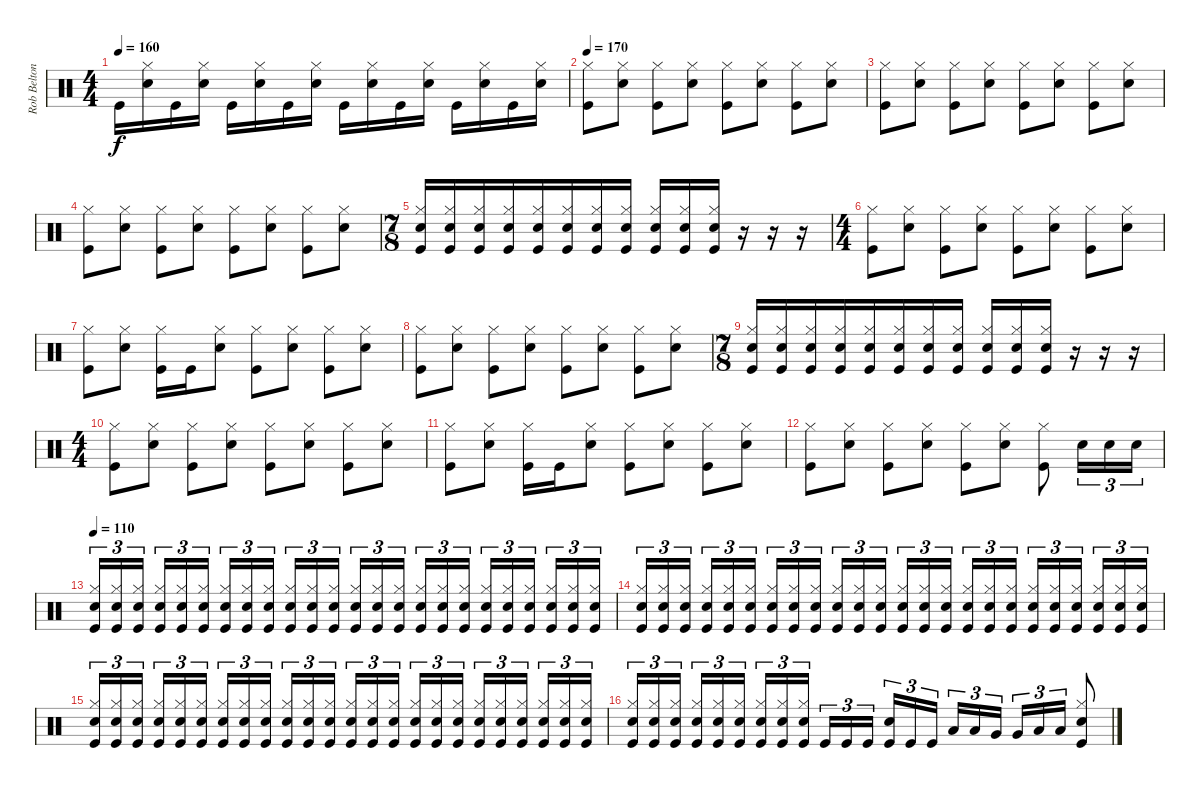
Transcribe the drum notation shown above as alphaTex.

\track ("Rob Belton" "Rob Belton") {instrument percussion}
\staff {score}
\articulation defaults
\ts (4 4)
\tempo 160
\clef neutral
\ks c "Kick (hit)".16{dy f}
("Hi-Hat (closed)" "Snare (hit) 2").16 "Kick (hit)".16 ("Hi-Hat (closed)" "Snare (hit) 2").16 "Kick (hit)".16 ("Hi-Hat (closed)" "Snare (hit) 2").16 "Kick (hit)".16 ("Hi-Hat (closed)" "Snare (hit) 2").16 "Kick (hit)".16 ("Hi-Hat (closed)" "Snare (hit) 2").16 "Kick (hit)".16 ("Hi-Hat (closed)" "Snare (hit) 2").16 "Kick (hit)".16 ("Hi-Hat (closed)" "Snare (hit) 2").16 "Kick (hit)".16 ("Hi-Hat (closed)" "Snare (hit) 2").16 |
\tempo 170
("Hi-Hat (closed)" "Kick (hit)").8 ("Hi-Hat (closed)" "Snare (hit) 2").8 ("Hi-Hat (closed)" "Kick (hit)").8 ("Hi-Hat (closed)" "Snare (hit) 2").8 ("Hi-Hat (closed)" "Kick (hit)").8 ("Hi-Hat (closed)" "Snare (hit) 2").8 ("Hi-Hat (closed)" "Kick (hit)").8 ("Hi-Hat (closed)" "Snare (hit) 2").8 |
("Hi-Hat (closed)" "Kick (hit)").8 ("Hi-Hat (closed)" "Snare (hit) 2").8 ("Hi-Hat (closed)" "Kick (hit)").8 ("Hi-Hat (closed)" "Snare (hit) 2").8 ("Hi-Hat (closed)" "Kick (hit)").8 ("Hi-Hat (closed)" "Snare (hit) 2").8 ("Hi-Hat (closed)" "Kick (hit)").8 ("Hi-Hat (closed)" "Snare (hit) 2").8 |
("Hi-Hat (closed)" "Kick (hit)").8 ("Hi-Hat (closed)" "Snare (hit) 2").8 ("Hi-Hat (closed)" "Kick (hit)").8 ("Hi-Hat (closed)" "Snare (hit) 2").8 ("Hi-Hat (closed)" "Kick (hit)").8 ("Hi-Hat (closed)" "Snare (hit) 2").8 ("Hi-Hat (closed)" "Kick (hit)").8 ("Hi-Hat (closed)" "Snare (hit) 2").8 |
\ts (7 8)
("Hi-Hat (closed)" "Snare (hit) 2" "Kick (hit)").16 ("Hi-Hat (closed)" "Snare (hit) 2" "Kick (hit)").16 ("Hi-Hat (closed)" "Snare (hit) 2" "Kick (hit)").16 ("Hi-Hat (closed)" "Snare (hit) 2" "Kick (hit)").16 ("Hi-Hat (closed)" "Snare (hit) 2" "Kick (hit)").16 ("Hi-Hat (closed)" "Snare (hit) 2" "Kick (hit)").16 ("Hi-Hat (closed)" "Snare (hit) 2" "Kick (hit)").16 ("Hi-Hat (closed)" "Snare (hit) 2" "Kick (hit)").16 ("Hi-Hat (closed)" "Snare (hit) 2" "Kick (hit)").16 ("Hi-Hat (closed)" "Snare (hit) 2" "Kick (hit)").16 ("Hi-Hat (closed)" "Snare (hit) 2" "Kick (hit)").16 r.16 r.16 r.16 |
\ts (4 4)
("Hi-Hat (closed)" "Kick (hit)").8 ("Hi-Hat (closed)" "Snare (hit) 2").8 ("Hi-Hat (closed)" "Kick (hit)").8 ("Hi-Hat (closed)" "Snare (hit) 2").8 ("Hi-Hat (closed)" "Kick (hit)").8 ("Hi-Hat (closed)" "Snare (hit) 2").8 ("Hi-Hat (closed)" "Kick (hit)").8 ("Hi-Hat (closed)" "Snare (hit) 2").8 |
("Hi-Hat (closed)" "Kick (hit)").8 ("Hi-Hat (closed)" "Snare (hit) 2").8 ("Hi-Hat (closed)" "Kick (hit)").16 "Kick (hit)".16 ("Hi-Hat (closed)" "Snare (hit) 2").8 ("Hi-Hat (closed)" "Kick (hit)").8 ("Hi-Hat (closed)" "Snare (hit) 2").8 ("Hi-Hat (closed)" "Kick (hit)").8 ("Hi-Hat (closed)" "Snare (hit) 2").8 |
("Hi-Hat (closed)" "Kick (hit)").8 ("Hi-Hat (closed)" "Snare (hit) 2").8 ("Hi-Hat (closed)" "Kick (hit)").8 ("Hi-Hat (closed)" "Snare (hit) 2").8 ("Hi-Hat (closed)" "Kick (hit)").8 ("Hi-Hat (closed)" "Snare (hit) 2").8 ("Hi-Hat (closed)" "Kick (hit)").8 ("Hi-Hat (closed)" "Snare (hit) 2").8 |
\ts (7 8)
("Hi-Hat (closed)" "Snare (hit) 2" "Kick (hit)").16 ("Hi-Hat (closed)" "Snare (hit) 2" "Kick (hit)").16 ("Hi-Hat (closed)" "Snare (hit) 2" "Kick (hit)").16 ("Hi-Hat (closed)" "Snare (hit) 2" "Kick (hit)").16 ("Hi-Hat (closed)" "Snare (hit) 2" "Kick (hit)").16 ("Hi-Hat (closed)" "Snare (hit) 2" "Kick (hit)").16 ("Hi-Hat (closed)" "Snare (hit) 2" "Kick (hit)").16 ("Hi-Hat (closed)" "Snare (hit) 2" "Kick (hit)").16 ("Hi-Hat (closed)" "Snare (hit) 2" "Kick (hit)").16 ("Hi-Hat (closed)" "Snare (hit) 2" "Kick (hit)").16 ("Hi-Hat (closed)" "Snare (hit) 2" "Kick (hit)").16 r.16 r.16 r.16 |
\ts (4 4)
("Hi-Hat (closed)" "Kick (hit)").8 ("Hi-Hat (closed)" "Snare (hit) 2").8 ("Hi-Hat (closed)" "Kick (hit)").8 ("Hi-Hat (closed)" "Snare (hit) 2").8 ("Hi-Hat (closed)" "Kick (hit)").8 ("Hi-Hat (closed)" "Snare (hit) 2").8 ("Hi-Hat (closed)" "Kick (hit)").8 ("Hi-Hat (closed)" "Snare (hit) 2").8 |
("Hi-Hat (closed)" "Kick (hit)").8 ("Hi-Hat (closed)" "Snare (hit) 2").8 ("Hi-Hat (closed)" "Kick (hit)").16 "Kick (hit)".16 ("Hi-Hat (closed)" "Snare (hit) 2").8 ("Hi-Hat (closed)" "Kick (hit)").8 ("Hi-Hat (closed)" "Snare (hit) 2").8 ("Hi-Hat (closed)" "Kick (hit)").8 ("Hi-Hat (closed)" "Snare (hit) 2").8 |
("Hi-Hat (closed)" "Kick (hit)").8 ("Hi-Hat (closed)" "Snare (hit) 2").8 ("Hi-Hat (closed)" "Kick (hit)").8 ("Hi-Hat (closed)" "Snare (hit) 2").8 ("Hi-Hat (closed)" "Kick (hit)").8 ("Hi-Hat (closed)" "Snare (hit) 2").8 ("Hi-Hat (closed)" "Kick (hit)").8 "Snare (hit) 2".16{tu (3 2)} "Snare (hit) 2".16{tu (3 2)} "Snare (hit) 2".16{tu (3 2)} |
\tempo 110
("Hi-Hat (closed)" "Snare (hit) 2" "Kick (hit)").16{tu (3 2)} ("Hi-Hat (closed)" "Snare (hit) 2" "Kick (hit)").16{tu (3 2)} ("Hi-Hat (closed)" "Snare (hit) 2" "Kick (hit)").16{tu (3 2) beam splitsecondary} ("Hi-Hat (closed)" "Snare (hit) 2" "Kick (hit)").16{tu (3 2)} ("Hi-Hat (closed)" "Snare (hit) 2" "Kick (hit)").16{tu (3 2)} ("Hi-Hat (closed)" "Snare (hit) 2" "Kick (hit)").16{tu (3 2)} ("Hi-Hat (closed)" "Snare (hit) 2" "Kick (hit)").16{tu (3 2)} ("Hi-Hat (closed)" "Snare (hit) 2" "Kick (hit)").16{tu (3 2)} ("Hi-Hat (closed)" "Snare (hit) 2" "Kick (hit)").16{tu (3 2) beam splitsecondary} ("Hi-Hat (closed)" "Snare (hit) 2" "Kick (hit)").16{tu (3 2)} ("Hi-Hat (closed)" "Snare (hit) 2" "Kick (hit)").16{tu (3 2)} ("Hi-Hat (closed)" "Snare (hit) 2" "Kick (hit)").16{tu (3 2)} ("Hi-Hat (closed)" "Snare (hit) 2" "Kick (hit)").16{tu (3 2)} ("Hi-Hat (closed)" "Snare (hit) 2" "Kick (hit)").16{tu (3 2)} ("Hi-Hat (closed)" "Snare (hit) 2" "Kick (hit)").16{tu (3 2) beam splitsecondary} ("Hi-Hat (closed)" "Snare (hit) 2" "Kick (hit)").16{tu (3 2)} ("Hi-Hat (closed)" "Snare (hit) 2" "Kick (hit)").16{tu (3 2)} ("Hi-Hat (closed)" "Snare (hit) 2" "Kick (hit)").16{tu (3 2)} ("Hi-Hat (closed)" "Snare (hit) 2" "Kick (hit)").16{tu (3 2)} ("Hi-Hat (closed)" "Snare (hit) 2" "Kick (hit)").16{tu (3 2)} ("Hi-Hat (closed)" "Snare (hit) 2" "Kick (hit)").16{tu (3 2) beam splitsecondary} ("Hi-Hat (closed)" "Snare (hit) 2" "Kick (hit)").16{tu (3 2)} ("Hi-Hat (closed)" "Snare (hit) 2" "Kick (hit)").16{tu (3 2)} ("Hi-Hat (closed)" "Snare (hit) 2" "Kick (hit)").16{tu (3 2)} |
("Hi-Hat (closed)" "Snare (hit) 2" "Kick (hit)").16{tu (3 2)} ("Hi-Hat (closed)" "Snare (hit) 2" "Kick (hit)").16{tu (3 2)} ("Hi-Hat (closed)" "Snare (hit) 2" "Kick (hit)").16{tu (3 2) beam splitsecondary} ("Hi-Hat (closed)" "Snare (hit) 2" "Kick (hit)").16{tu (3 2)} ("Hi-Hat (closed)" "Snare (hit) 2" "Kick (hit)").16{tu (3 2)} ("Hi-Hat (closed)" "Snare (hit) 2" "Kick (hit)").16{tu (3 2)} ("Hi-Hat (closed)" "Snare (hit) 2" "Kick (hit)").16{tu (3 2)} ("Hi-Hat (closed)" "Snare (hit) 2" "Kick (hit)").16{tu (3 2)} ("Hi-Hat (closed)" "Snare (hit) 2" "Kick (hit)").16{tu (3 2) beam splitsecondary} ("Hi-Hat (closed)" "Snare (hit) 2" "Kick (hit)").16{tu (3 2)} ("Hi-Hat (closed)" "Snare (hit) 2" "Kick (hit)").16{tu (3 2)} ("Hi-Hat (closed)" "Snare (hit) 2" "Kick (hit)").16{tu (3 2)} ("Hi-Hat (closed)" "Snare (hit) 2" "Kick (hit)").16{tu (3 2)} ("Hi-Hat (closed)" "Snare (hit) 2" "Kick (hit)").16{tu (3 2)} ("Hi-Hat (closed)" "Snare (hit) 2" "Kick (hit)").16{tu (3 2) beam splitsecondary} ("Hi-Hat (closed)" "Snare (hit) 2" "Kick (hit)").16{tu (3 2)} ("Hi-Hat (closed)" "Snare (hit) 2" "Kick (hit)").16{tu (3 2)} ("Hi-Hat (closed)" "Snare (hit) 2" "Kick (hit)").16{tu (3 2)} ("Hi-Hat (closed)" "Snare (hit) 2" "Kick (hit)").16{tu (3 2)} ("Hi-Hat (closed)" "Snare (hit) 2" "Kick (hit)").16{tu (3 2)} ("Hi-Hat (closed)" "Snare (hit) 2" "Kick (hit)").16{tu (3 2) beam splitsecondary} ("Hi-Hat (closed)" "Snare (hit) 2" "Kick (hit)").16{tu (3 2)} ("Hi-Hat (closed)" "Snare (hit) 2" "Kick (hit)").16{tu (3 2)} ("Hi-Hat (closed)" "Snare (hit) 2" "Kick (hit)").16{tu (3 2)} |
("Hi-Hat (closed)" "Snare (hit) 2" "Kick (hit)").16{tu (3 2)} ("Hi-Hat (closed)" "Snare (hit) 2" "Kick (hit)").16{tu (3 2)} ("Hi-Hat (closed)" "Snare (hit) 2" "Kick (hit)").16{tu (3 2) beam splitsecondary} ("Hi-Hat (closed)" "Snare (hit) 2" "Kick (hit)").16{tu (3 2)} ("Hi-Hat (closed)" "Snare (hit) 2" "Kick (hit)").16{tu (3 2)} ("Hi-Hat (closed)" "Snare (hit) 2" "Kick (hit)").16{tu (3 2)} ("Hi-Hat (closed)" "Snare (hit) 2" "Kick (hit)").16{tu (3 2)} ("Hi-Hat (closed)" "Snare (hit) 2" "Kick (hit)").16{tu (3 2)} ("Hi-Hat (closed)" "Snare (hit) 2" "Kick (hit)").16{tu (3 2) beam splitsecondary} ("Hi-Hat (closed)" "Snare (hit) 2" "Kick (hit)").16{tu (3 2)} ("Hi-Hat (closed)" "Snare (hit) 2" "Kick (hit)").16{tu (3 2)} ("Hi-Hat (closed)" "Snare (hit) 2" "Kick (hit)").16{tu (3 2)} ("Hi-Hat (closed)" "Snare (hit) 2" "Kick (hit)").16{tu (3 2)} ("Hi-Hat (closed)" "Snare (hit) 2" "Kick (hit)").16{tu (3 2)} ("Hi-Hat (closed)" "Snare (hit) 2" "Kick (hit)").16{tu (3 2) beam splitsecondary} ("Hi-Hat (closed)" "Snare (hit) 2" "Kick (hit)").16{tu (3 2)} ("Hi-Hat (closed)" "Snare (hit) 2" "Kick (hit)").16{tu (3 2)} ("Hi-Hat (closed)" "Snare (hit) 2" "Kick (hit)").16{tu (3 2)} ("Hi-Hat (closed)" "Snare (hit) 2" "Kick (hit)").16{tu (3 2)} ("Hi-Hat (closed)" "Snare (hit) 2" "Kick (hit)").16{tu (3 2)} ("Hi-Hat (closed)" "Snare (hit) 2" "Kick (hit)").16{tu (3 2) beam splitsecondary} ("Hi-Hat (closed)" "Snare (hit) 2" "Kick (hit)").16{tu (3 2)} ("Hi-Hat (closed)" "Snare (hit) 2" "Kick (hit)").16{tu (3 2)} ("Hi-Hat (closed)" "Snare (hit) 2" "Kick (hit)").16{tu (3 2)} |
("Hi-Hat (closed)" "Snare (hit) 2" "Kick (hit)").16{tu (3 2)} ("Hi-Hat (closed)" "Snare (hit) 2" "Kick (hit)").16{tu (3 2)} ("Hi-Hat (closed)" "Snare (hit) 2" "Kick (hit)").16{tu (3 2) beam splitsecondary} ("Hi-Hat (closed)" "Snare (hit) 2" "Kick (hit)").16{tu (3 2)} ("Hi-Hat (closed)" "Snare (hit) 2" "Kick (hit)").16{tu (3 2)} ("Hi-Hat (closed)" "Snare (hit) 2" "Kick (hit)").16{tu (3 2)} ("Hi-Hat (closed)" "Snare (hit) 2" "Kick (hit)").16{tu (3 2)} ("Hi-Hat (closed)" "Snare (hit) 2" "Kick (hit)").16{tu (3 2)} ("Hi-Hat (closed)" "Snare (hit) 2" "Kick (hit)").16{tu (3 2) beam splitsecondary} "Kick (hit)".16{tu (3 2)} "Kick (hit)".16{tu (3 2)} "Kick (hit)".16{tu (3 2)} ("Snare (hit) 2" "Kick (hit)").16{tu (3 2)} "Kick (hit)".16{tu (3 2)} "Kick (hit)".16{tu (3 2) beam splitsecondary} "Low Tom (hit)".16{tu (3 2)} "Low Tom (hit)".16{tu (3 2)} "Very Low Tom (hit)".16{tu (3 2)} "Very Low Tom (hit)".16{tu (3 2)} "Low Floor Tom (hit)".16{tu (3 2)} "Low Floor Tom (hit)".16{tu (3 2)} ("Hi-Hat (closed)" "Snare (hit) 2" "Kick (hit)").8
